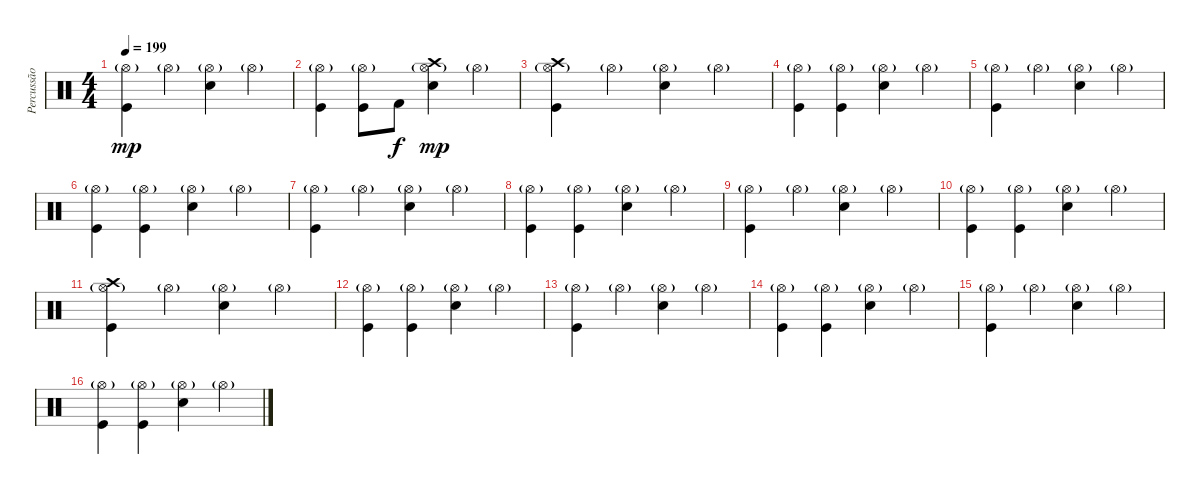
\track ("Percussão" "Percussão") {instrument percussion}
\staff {score}
\articulation defaults
\ts (4 4)
\tempo 199
\clef neutral
\ks c
("Hi-Hat (open)"{g} "Kick (hit)").4{dy mp} "Hi-Hat (open)"{g}.4 ("Hi-Hat (open)"{g} "Electric Snare (hit)").4 "Hi-Hat (open)"{g}.4 |
("Hi-Hat (open)"{g} "Kick (hit)").4 ("Hi-Hat (open)"{g} "Kick (hit)").8 "Kick (hit) 2".8{dy f} ("Hi-Hat (open)"{g} "Crash high (hit)" "Electric Snare (hit)").4{dy mp} "Hi-Hat (open)"{g}.4 |
("Hi-Hat (open)"{g} "Crash high (hit)" "Kick (hit)").4 "Hi-Hat (open)"{g}.4 ("Hi-Hat (open)"{g} "Electric Snare (hit)").4 "Hi-Hat (open)"{g}.4 |
("Hi-Hat (open)"{g} "Kick (hit)").4 ("Hi-Hat (open)"{g} "Kick (hit)").4 ("Hi-Hat (open)"{g} "Electric Snare (hit)").4 "Hi-Hat (open)"{g}.4 |
("Hi-Hat (open)"{g} "Kick (hit)").4 "Hi-Hat (open)"{g}.4 ("Hi-Hat (open)"{g} "Electric Snare (hit)").4 "Hi-Hat (open)"{g}.4 |
("Hi-Hat (open)"{g} "Kick (hit)").4 ("Hi-Hat (open)"{g} "Kick (hit)").4 ("Hi-Hat (open)"{g} "Electric Snare (hit)").4 "Hi-Hat (open)"{g}.4 |
("Hi-Hat (open)"{g} "Kick (hit)").4 "Hi-Hat (open)"{g}.4 ("Hi-Hat (open)"{g} "Electric Snare (hit)").4 "Hi-Hat (open)"{g}.4 |
("Hi-Hat (open)"{g} "Kick (hit)").4 ("Hi-Hat (open)"{g} "Kick (hit)").4 ("Hi-Hat (open)"{g} "Electric Snare (hit)").4 "Hi-Hat (open)"{g}.4 |
("Hi-Hat (open)"{g} "Kick (hit)").4 "Hi-Hat (open)"{g}.4 ("Hi-Hat (open)"{g} "Electric Snare (hit)").4 "Hi-Hat (open)"{g}.4 |
("Hi-Hat (open)"{g} "Kick (hit)").4 ("Hi-Hat (open)"{g} "Kick (hit)").4 ("Hi-Hat (open)"{g} "Electric Snare (hit)").4 "Hi-Hat (open)"{g}.4 |
("Hi-Hat (open)"{g} "Crash high (hit)" "Kick (hit)").4 "Hi-Hat (open)"{g}.4 ("Hi-Hat (open)"{g} "Electric Snare (hit)").4 "Hi-Hat (open)"{g}.4 |
("Hi-Hat (open)"{g} "Kick (hit)").4 ("Hi-Hat (open)"{g} "Kick (hit)").4 ("Hi-Hat (open)"{g} "Electric Snare (hit)").4 "Hi-Hat (open)"{g}.4 |
("Hi-Hat (open)"{g} "Kick (hit)").4 "Hi-Hat (open)"{g}.4 ("Hi-Hat (open)"{g} "Electric Snare (hit)").4 "Hi-Hat (open)"{g}.4 |
("Hi-Hat (open)"{g} "Kick (hit)").4 ("Hi-Hat (open)"{g} "Kick (hit)").4 ("Hi-Hat (open)"{g} "Electric Snare (hit)").4 "Hi-Hat (open)"{g}.4 |
("Hi-Hat (open)"{g} "Kick (hit)").4 "Hi-Hat (open)"{g}.4 ("Hi-Hat (open)"{g} "Electric Snare (hit)").4 "Hi-Hat (open)"{g}.4 |
("Hi-Hat (open)"{g} "Kick (hit)").4 ("Hi-Hat (open)"{g} "Kick (hit)").4 ("Hi-Hat (open)"{g} "Electric Snare (hit)").4 "Hi-Hat (open)"{g}.4
